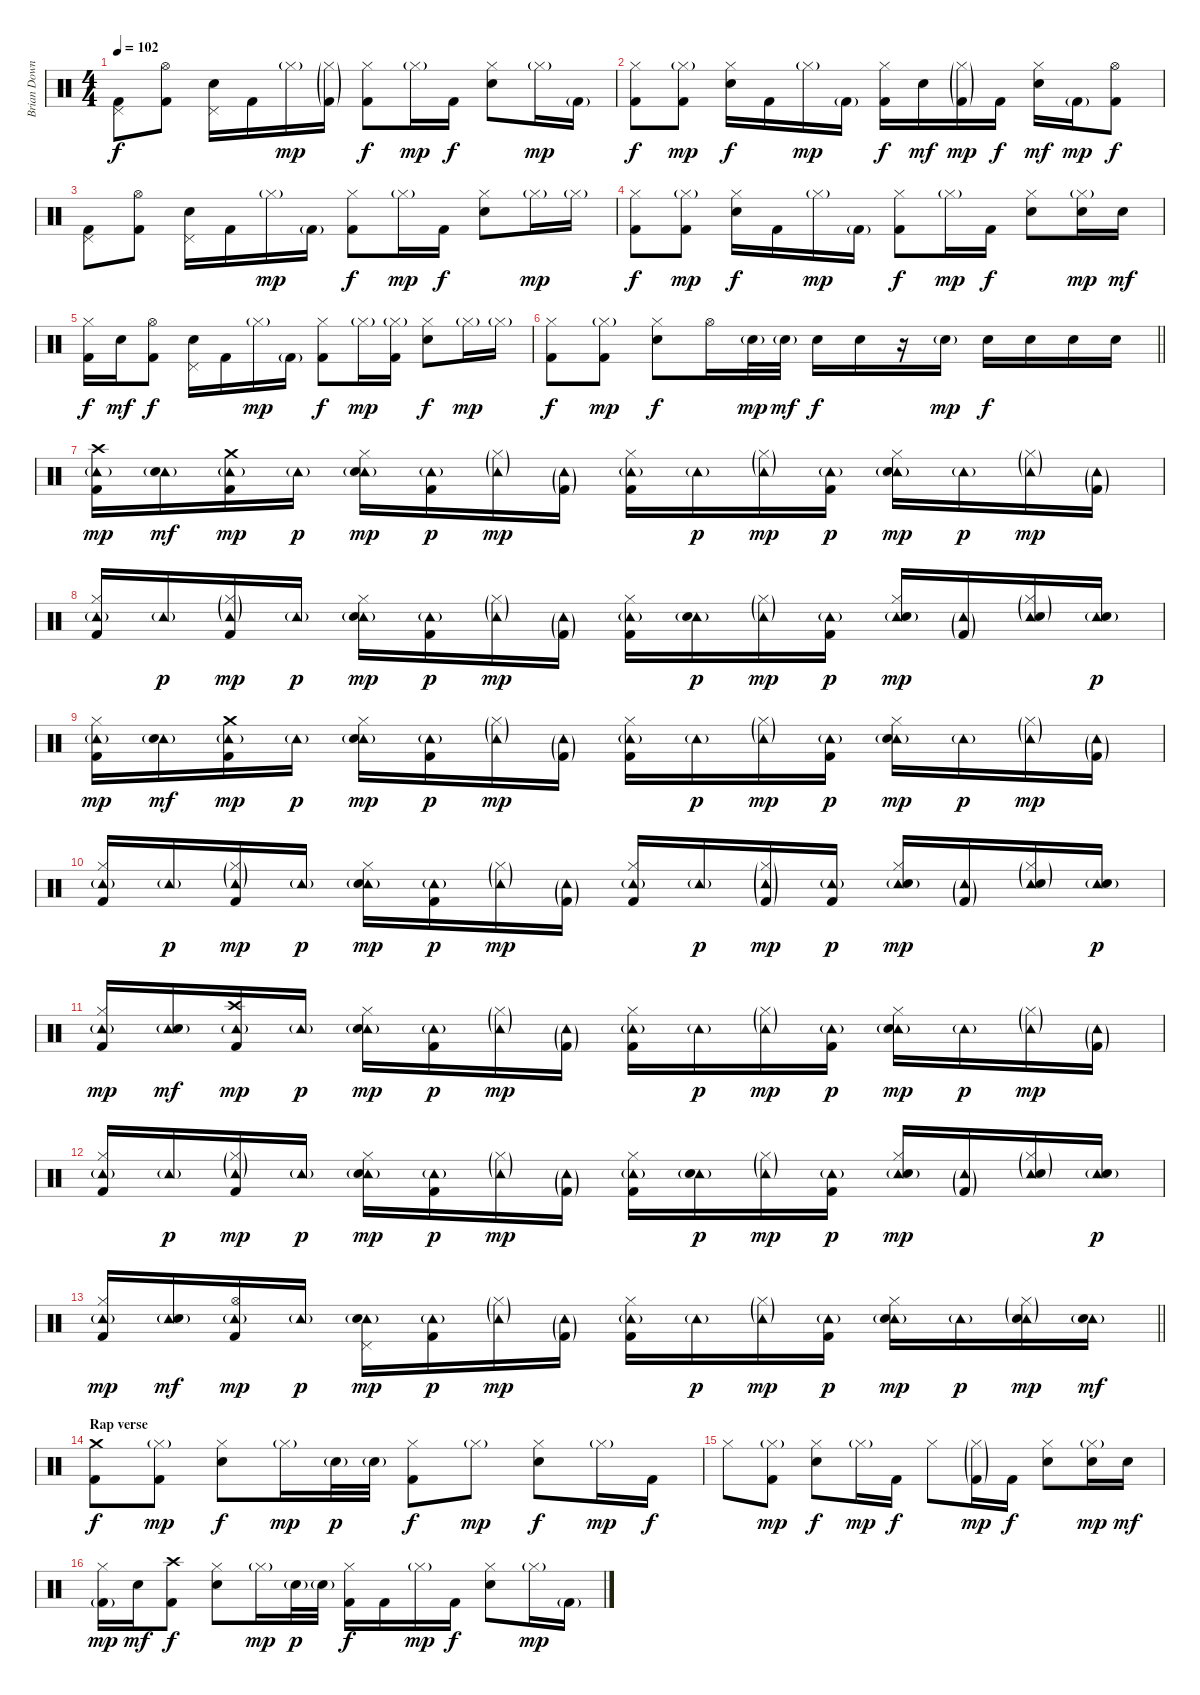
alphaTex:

\track ("Brian Downey" "Brian Down") {instrument percussion}
\staff {score}
\articulation defaults
\ts (4 4)
\tempo 102
\clef neutral
\ks c
("Pedal Hi-Hat (hit)" "Kick (hit) 2").8{dy f} ("Hi-Hat (open)" "Kick (hit) 2").8 ("Pedal Hi-Hat (hit)" "Electric Snare (hit)").16 "Kick (hit) 2".16 "Hi-Hat (closed)"{g}.16{dy mp} ("Hi-Hat (closed)"{g} "Kick (hit) 2"{g}).16 ("Hi-Hat (closed)" "Kick (hit) 2").8{dy f} "Hi-Hat (closed)"{g}.16{dy mp} "Kick (hit) 2".16{dy f} ("Hi-Hat (closed)" "Electric Snare (hit)").8 "Hi-Hat (closed)"{g}.16{dy mp} "Kick (hit) 2"{g}.16 |
("Hi-Hat (closed)" "Kick (hit) 2").8{dy f} ("Hi-Hat (closed)"{g} "Kick (hit) 2").8{dy mp} ("Hi-Hat (closed)" "Electric Snare (hit)").16{dy f} "Kick (hit) 2".16 "Hi-Hat (closed)"{g}.16{dy mp} "Kick (hit) 2"{g}.16 ("Hi-Hat (closed)" "Kick (hit) 2").16{dy f} "Electric Snare (hit)".16{dy mf} ("Hi-Hat (closed)"{g} "Kick (hit) 2"{g}).16{dy mp} "Kick (hit) 2".16{dy f} ("Hi-Hat (closed)" "Electric Snare (hit)").16{dy mf} "Kick (hit) 2"{g}.16{dy mp} ("Hi-Hat (open)" "Kick (hit) 2").8{dy f} |
("Pedal Hi-Hat (hit)" "Kick (hit) 2").8 ("Hi-Hat (open)" "Kick (hit) 2").8 ("Pedal Hi-Hat (hit)" "Electric Snare (hit)").16 "Kick (hit) 2".16 "Hi-Hat (closed)"{g}.16{dy mp} "Kick (hit) 2"{g}.16 ("Hi-Hat (closed)" "Kick (hit) 2").8{dy f} "Hi-Hat (closed)"{g}.16{dy mp} "Kick (hit) 2".16{dy f} ("Hi-Hat (closed)" "Electric Snare (hit)").8 "Hi-Hat (closed)"{g}.16{dy mp} "Hi-Hat (closed)"{g}.16 |
("Hi-Hat (closed)" "Kick (hit) 2").8{dy f} ("Hi-Hat (closed)"{g} "Kick (hit) 2").8{dy mp} ("Hi-Hat (closed)" "Electric Snare (hit)").16{dy f} "Kick (hit) 2".16 "Hi-Hat (closed)"{g}.16{dy mp} "Kick (hit) 2"{g}.16 ("Hi-Hat (closed)" "Kick (hit) 2").8{dy f} "Hi-Hat (closed)"{g}.16{dy mp} "Kick (hit) 2".16{dy f} ("Hi-Hat (closed)" "Electric Snare (hit)").8 ("Hi-Hat (closed)"{g} "Electric Snare (hit)").16{dy mp} "Electric Snare (hit)".16{dy mf} |
("Hi-Hat (closed)" "Kick (hit) 2").16{dy f} "Electric Snare (hit)".16{dy mf} ("Hi-Hat (open)" "Kick (hit) 2").8{dy f} ("Pedal Hi-Hat (hit)" "Electric Snare (hit)").16 "Kick (hit) 2".16 "Hi-Hat (closed)"{g}.16{dy mp} "Kick (hit) 2"{g}.16 ("Hi-Hat (closed)" "Kick (hit) 2").8{dy f} "Hi-Hat (closed)"{g}.16{dy mp} ("Hi-Hat (closed)"{g} "Kick (hit) 2").16 ("Hi-Hat (closed)" "Electric Snare (hit)").8{dy f} "Hi-Hat (closed)"{g}.16{dy mp} "Hi-Hat (closed)"{g}.16 |
\barLineRight lightlight
("Hi-Hat (closed)" "Kick (hit) 2").8{dy f} ("Hi-Hat (closed)"{g} "Kick (hit) 2").8{dy mp} ("Hi-Hat (closed)" "Electric Snare (hit)").8{dy f} "Hi-Hat (open)".16 "Electric Snare (hit)"{g}.32{dy mp} "Electric Snare (hit)"{g}.32{dy mf} "Electric Snare (hit)".16{dy f} "Electric Snare (hit)".16 r.16 "Electric Snare (hit)"{g}.16{dy mp} "Electric Snare (hit)".16{dy f} "Electric Snare (hit)".16 "Electric Snare (hit)".16 "Electric Snare (hit)".16 |
\section ("" "")
("Crash high (hit)" "Tambourine (hit)"{g} "Kick (hit) 2").16{dy mp} ("Tambourine (hit)"{g} "Electric Snare (hit)").16{dy mf} ("Crash medium (hit)" "Tambourine (hit)"{g} "Kick (hit) 2").16{dy mp} "Tambourine (hit)"{g}.16{dy p} ("Hi-Hat (closed)" "Tambourine (hit)"{g} "Electric Snare (hit)").16{dy mp} ("Tambourine (hit)"{g} "Kick (hit) 2").16{dy p} ("Hi-Hat (closed)"{g} "Tambourine (hit)"{g}).16{dy mp} ("Tambourine (hit)"{g} "Kick (hit) 2"{g}).16 ("Hi-Hat (closed)" "Tambourine (hit)"{g} "Kick (hit) 2").16 "Tambourine (hit)"{g}.16{dy p} ("Hi-Hat (closed)"{g} "Tambourine (hit)"{g}).16{dy mp} ("Tambourine (hit)"{g} "Kick (hit) 2").16{dy p} ("Hi-Hat (closed)" "Tambourine (hit)"{g} "Electric Snare (hit)").16{dy mp} "Tambourine (hit)"{g}.16{dy p} ("Hi-Hat (closed)"{g} "Tambourine (hit)"{g}).16{dy mp} ("Tambourine (hit)"{g} "Kick (hit) 2"{g}).16 |
("Hi-Hat (closed)" "Tambourine (hit)"{g} "Kick (hit) 2").16 "Tambourine (hit)"{g}.16{dy p} ("Hi-Hat (closed)"{g} "Tambourine (hit)"{g} "Kick (hit) 2").16{dy mp} "Tambourine (hit)"{g}.16{dy p} ("Hi-Hat (closed)" "Tambourine (hit)"{g} "Electric Snare (hit)").16{dy mp} ("Tambourine (hit)"{g} "Kick (hit) 2").16{dy p} ("Hi-Hat (closed)"{g} "Tambourine (hit)"{g}).16{dy mp} ("Tambourine (hit)"{g} "Kick (hit) 2"{g}).16 ("Hi-Hat (closed)" "Tambourine (hit)"{g} "Kick (hit) 2").16 ("Tambourine (hit)"{g} "Electric Snare (hit)").16{dy p} ("Hi-Hat (closed)"{g} "Tambourine (hit)"{g}).16{dy mp} ("Tambourine (hit)"{g} "Kick (hit) 2").16{dy p} ("Hi-Hat (closed)" "Tambourine (hit)"{g} "Electric Snare (hit)").16{dy mp} ("Tambourine (hit)"{g} "Kick (hit) 2"{g}).16 ("Hi-Hat (closed)"{g} "Tambourine (hit)"{g} "Electric Snare (hit)").16 ("Tambourine (hit)"{g} "Electric Snare (hit)").16{dy p} |
("Hi-Hat (closed)" "Tambourine (hit)"{g} "Kick (hit) 2").16{dy mp} ("Tambourine (hit)"{g} "Electric Snare (hit)").16{dy mf} ("Crash medium (hit)" "Tambourine (hit)"{g} "Kick (hit) 2").16{dy mp} "Tambourine (hit)"{g}.16{dy p} ("Hi-Hat (closed)" "Tambourine (hit)"{g} "Electric Snare (hit)").16{dy mp} ("Tambourine (hit)"{g} "Kick (hit) 2").16{dy p} ("Hi-Hat (closed)"{g} "Tambourine (hit)"{g}).16{dy mp} ("Tambourine (hit)"{g} "Kick (hit) 2"{g}).16 ("Hi-Hat (closed)" "Tambourine (hit)"{g} "Kick (hit) 2").16 "Tambourine (hit)"{g}.16{dy p} ("Hi-Hat (closed)"{g} "Tambourine (hit)"{g}).16{dy mp} ("Tambourine (hit)"{g} "Kick (hit) 2").16{dy p} ("Hi-Hat (closed)" "Tambourine (hit)"{g} "Electric Snare (hit)").16{dy mp} "Tambourine (hit)"{g}.16{dy p} ("Hi-Hat (closed)"{g} "Tambourine (hit)"{g}).16{dy mp} ("Tambourine (hit)"{g} "Kick (hit) 2"{g}).16 |
("Hi-Hat (closed)" "Tambourine (hit)"{g} "Kick (hit) 2").16 "Tambourine (hit)"{g}.16{dy p} ("Hi-Hat (closed)"{g} "Tambourine (hit)"{g} "Kick (hit) 2").16{dy mp} "Tambourine (hit)"{g}.16{dy p} ("Hi-Hat (closed)" "Tambourine (hit)"{g} "Electric Snare (hit)").16{dy mp} ("Tambourine (hit)"{g} "Kick (hit) 2").16{dy p} ("Hi-Hat (closed)"{g} "Tambourine (hit)"{g}).16{dy mp} ("Tambourine (hit)"{g} "Kick (hit) 2"{g}).16 ("Hi-Hat (closed)" "Tambourine (hit)"{g} "Kick (hit) 2").16 "Tambourine (hit)"{g}.16{dy p} ("Hi-Hat (closed)"{g} "Tambourine (hit)"{g} "Kick (hit) 2"{g}).16{dy mp} ("Tambourine (hit)"{g} "Kick (hit) 2").16{dy p} ("Hi-Hat (closed)" "Tambourine (hit)"{g} "Electric Snare (hit)").16{dy mp} ("Tambourine (hit)"{g} "Kick (hit) 2"{g}).16 ("Hi-Hat (closed)"{g} "Tambourine (hit)"{g} "Electric Snare (hit)").16 ("Tambourine (hit)"{g} "Electric Snare (hit)").16{dy p} |
("Hi-Hat (closed)" "Tambourine (hit)"{g} "Kick (hit) 2").16{dy mp} ("Tambourine (hit)"{g} "Electric Snare (hit)").16{dy mf} ("Crash high (hit)" "Tambourine (hit)"{g} "Kick (hit) 2").16{dy mp} "Tambourine (hit)"{g}.16{dy p} ("Hi-Hat (closed)" "Tambourine (hit)"{g} "Electric Snare (hit)").16{dy mp} ("Tambourine (hit)"{g} "Kick (hit) 2").16{dy p} ("Hi-Hat (closed)"{g} "Tambourine (hit)"{g}).16{dy mp} ("Tambourine (hit)"{g} "Kick (hit) 2"{g}).16 ("Hi-Hat (closed)" "Tambourine (hit)"{g} "Kick (hit) 2").16 "Tambourine (hit)"{g}.16{dy p} ("Hi-Hat (closed)"{g} "Tambourine (hit)"{g}).16{dy mp} ("Tambourine (hit)"{g} "Kick (hit) 2").16{dy p} ("Hi-Hat (closed)" "Tambourine (hit)"{g} "Electric Snare (hit)").16{dy mp} "Tambourine (hit)"{g}.16{dy p} ("Hi-Hat (closed)"{g} "Tambourine (hit)"{g}).16{dy mp} ("Tambourine (hit)"{g} "Kick (hit) 2"{g}).16 |
("Hi-Hat (closed)" "Tambourine (hit)"{g} "Kick (hit) 2").16 "Tambourine (hit)"{g}.16{dy p} ("Hi-Hat (closed)"{g} "Tambourine (hit)"{g} "Kick (hit) 2").16{dy mp} "Tambourine (hit)"{g}.16{dy p} ("Hi-Hat (closed)" "Tambourine (hit)"{g} "Electric Snare (hit)").16{dy mp} ("Tambourine (hit)"{g} "Kick (hit) 2").16{dy p} ("Hi-Hat (closed)"{g} "Tambourine (hit)"{g}).16{dy mp} ("Tambourine (hit)"{g} "Kick (hit) 2"{g}).16 ("Hi-Hat (closed)" "Tambourine (hit)"{g} "Kick (hit) 2").16 ("Tambourine (hit)"{g} "Electric Snare (hit)").16{dy p} ("Hi-Hat (closed)"{g} "Tambourine (hit)"{g}).16{dy mp} ("Tambourine (hit)"{g} "Kick (hit) 2").16{dy p} ("Hi-Hat (closed)" "Tambourine (hit)"{g} "Electric Snare (hit)").16{dy mp} ("Tambourine (hit)"{g} "Kick (hit) 2"{g}).16 ("Hi-Hat (closed)"{g} "Tambourine (hit)"{g} "Electric Snare (hit)").16 ("Tambourine (hit)"{g} "Electric Snare (hit)").16{dy p} |
\barLineRight lightlight
("Hi-Hat (closed)" "Tambourine (hit)"{g} "Kick (hit) 2").16{dy mp} ("Tambourine (hit)"{g} "Electric Snare (hit)").16{dy mf} ("Hi-Hat (open)" "Tambourine (hit)"{g} "Kick (hit) 2").16{dy mp} "Tambourine (hit)"{g}.16{dy p} ("Pedal Hi-Hat (hit)" "Tambourine (hit)"{g} "Electric Snare (hit)").16{dy mp} ("Tambourine (hit)"{g} "Kick (hit) 2").16{dy p} ("Hi-Hat (closed)"{g} "Tambourine (hit)"{g}).16{dy mp} ("Tambourine (hit)"{g} "Kick (hit) 2"{g}).16 ("Hi-Hat (closed)" "Tambourine (hit)"{g} "Kick (hit) 2").16 "Tambourine (hit)"{g}.16{dy p} ("Hi-Hat (closed)"{g} "Tambourine (hit)"{g}).16{dy mp} ("Tambourine (hit)"{g} "Kick (hit) 2").16{dy p} ("Hi-Hat (closed)" "Tambourine (hit)"{g} "Electric Snare (hit)").16{dy mp} "Tambourine (hit)"{g}.16{dy p} ("Hi-Hat (closed)"{g} "Tambourine (hit)"{g} "Electric Snare (hit)").16{dy mp} ("Tambourine (hit)"{g} "Electric Snare (hit)").16{dy mf} |
\section ("" "Rap verse")
("Crash medium (hit)" "Kick (hit) 2").8{dy f} ("Hi-Hat (closed)"{g} "Kick (hit) 2").8{dy mp} ("Hi-Hat (closed)" "Electric Snare (hit)").8{dy f} "Hi-Hat (closed)"{g}.16{dy mp} "Electric Snare (hit)"{g}.32{dy p} "Electric Snare (hit)"{g}.32 ("Hi-Hat (closed)" "Kick (hit) 2").8{dy f} "Hi-Hat (closed)"{g}.8{dy mp} ("Hi-Hat (closed)" "Electric Snare (hit)").8{dy f} "Hi-Hat (closed)"{g}.16{dy mp} "Kick (hit) 2".16{dy f} |
"Hi-Hat (closed)".8 ("Hi-Hat (closed)"{g} "Kick (hit) 2").8{dy mp} ("Hi-Hat (closed)" "Electric Snare (hit)").8{dy f} "Hi-Hat (closed)"{g}.16{dy mp} "Kick (hit) 2".16{dy f} "Hi-Hat (closed)".8 ("Hi-Hat (closed)"{g} "Kick (hit) 2"{g}).16{dy mp} "Kick (hit) 2".16{dy f} ("Hi-Hat (closed)" "Electric Snare (hit)").8 ("Hi-Hat (closed)"{g} "Electric Snare (hit)").16{dy mp} "Electric Snare (hit)".16{dy mf} |
("Hi-Hat (closed)" "Kick (hit) 2"{g}).16{dy mp} "Electric Snare (hit)".16{dy mf} ("Crash high (hit)" "Kick (hit) 2").8{dy f} ("Hi-Hat (closed)" "Electric Snare (hit)").8 "Hi-Hat (closed)"{g}.16{dy mp} "Electric Snare (hit)"{g}.32{dy p} "Electric Snare (hit)"{g}.32 ("Hi-Hat (closed)" "Kick (hit) 2").16{dy f} "Kick (hit) 2".16 "Hi-Hat (closed)"{g}.16{dy mp} "Kick (hit) 2".16{dy f} ("Hi-Hat (closed)" "Electric Snare (hit)").8 "Hi-Hat (closed)"{g}.16{dy mp} "Kick (hit) 2"{g}.16
